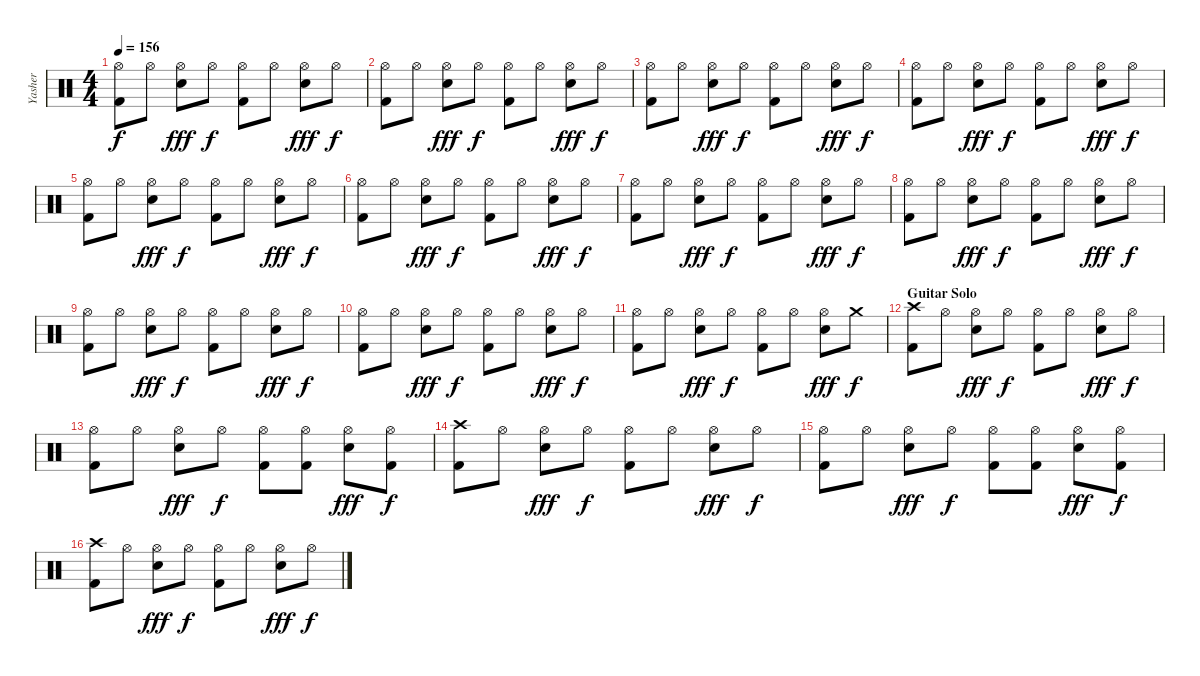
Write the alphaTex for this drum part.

\track ("Yasher" "Yasher") {instrument percussion}
\staff {score}
\articulation defaults
\ts (4 4)
\tempo 156
\clef neutral
\ks c
("Hi-Hat (open)" "Kick (hit) 2").8{dy f} "Hi-Hat (open)".8 ("Hi-Hat (open)" "Electric Snare (hit)").8{dy fff} "Hi-Hat (open)".8{dy f} ("Hi-Hat (open)" "Kick (hit) 2").8 "Hi-Hat (open)".8 ("Hi-Hat (open)" "Electric Snare (hit)").8{dy fff} "Hi-Hat (open)".8{dy f} |
("Hi-Hat (open)" "Kick (hit) 2").8 "Hi-Hat (open)".8 ("Hi-Hat (open)" "Electric Snare (hit)").8{dy fff} "Hi-Hat (open)".8{dy f} ("Hi-Hat (open)" "Kick (hit) 2").8 "Hi-Hat (open)".8 ("Hi-Hat (open)" "Electric Snare (hit)").8{dy fff} "Hi-Hat (open)".8{dy f} |
("Hi-Hat (open)" "Kick (hit) 2").8 "Hi-Hat (open)".8 ("Hi-Hat (open)" "Electric Snare (hit)").8{dy fff} "Hi-Hat (open)".8{dy f} ("Hi-Hat (open)" "Kick (hit) 2").8 "Hi-Hat (open)".8 ("Hi-Hat (open)" "Electric Snare (hit)").8{dy fff} "Hi-Hat (open)".8{dy f} |
("Hi-Hat (open)" "Kick (hit) 2").8 "Hi-Hat (open)".8 ("Hi-Hat (open)" "Electric Snare (hit)").8{dy fff} "Hi-Hat (open)".8{dy f} ("Hi-Hat (open)" "Kick (hit) 2").8 "Hi-Hat (open)".8 ("Hi-Hat (open)" "Electric Snare (hit)").8{dy fff} "Hi-Hat (open)".8{dy f} |
("Hi-Hat (open)" "Kick (hit) 2").8 "Hi-Hat (open)".8 ("Hi-Hat (open)" "Electric Snare (hit)").8{dy fff} "Hi-Hat (open)".8{dy f} ("Hi-Hat (open)" "Kick (hit) 2").8 "Hi-Hat (open)".8 ("Hi-Hat (open)" "Electric Snare (hit)").8{dy fff} "Hi-Hat (open)".8{dy f} |
("Hi-Hat (open)" "Kick (hit) 2").8 "Hi-Hat (open)".8 ("Hi-Hat (open)" "Electric Snare (hit)").8{dy fff} "Hi-Hat (open)".8{dy f} ("Hi-Hat (open)" "Kick (hit) 2").8 "Hi-Hat (open)".8 ("Hi-Hat (open)" "Electric Snare (hit)").8{dy fff} "Hi-Hat (open)".8{dy f} |
("Hi-Hat (open)" "Kick (hit) 2").8 "Hi-Hat (open)".8 ("Hi-Hat (open)" "Electric Snare (hit)").8{dy fff} "Hi-Hat (open)".8{dy f} ("Hi-Hat (open)" "Kick (hit) 2").8 "Hi-Hat (open)".8 ("Hi-Hat (open)" "Electric Snare (hit)").8{dy fff} "Hi-Hat (open)".8{dy f} |
("Hi-Hat (open)" "Kick (hit) 2").8 "Hi-Hat (open)".8 ("Hi-Hat (open)" "Electric Snare (hit)").8{dy fff} "Hi-Hat (open)".8{dy f} ("Hi-Hat (open)" "Kick (hit) 2").8 "Hi-Hat (open)".8 ("Hi-Hat (open)" "Electric Snare (hit)").8{dy fff} "Hi-Hat (open)".8{dy f} |
("Hi-Hat (open)" "Kick (hit) 2").8 "Hi-Hat (open)".8 ("Hi-Hat (open)" "Electric Snare (hit)").8{dy fff} "Hi-Hat (open)".8{dy f} ("Hi-Hat (open)" "Kick (hit) 2").8 "Hi-Hat (open)".8 ("Hi-Hat (open)" "Electric Snare (hit)").8{dy fff} "Hi-Hat (open)".8{dy f} |
("Hi-Hat (open)" "Kick (hit) 2").8 "Hi-Hat (open)".8 ("Hi-Hat (open)" "Electric Snare (hit)").8{dy fff} "Hi-Hat (open)".8{dy f} ("Hi-Hat (open)" "Kick (hit) 2").8 "Hi-Hat (open)".8 ("Hi-Hat (open)" "Electric Snare (hit)").8{dy fff} "Hi-Hat (open)".8{dy f} |
("Hi-Hat (open)" "Kick (hit) 2").8 "Hi-Hat (open)".8 ("Hi-Hat (open)" "Electric Snare (hit)").8{dy fff} "Hi-Hat (open)".8{dy f} ("Hi-Hat (open)" "Kick (hit) 2").8 "Hi-Hat (open)".8 ("Hi-Hat (open)" "Electric Snare (hit)").8{dy fff} "Crash medium (hit)".8{dy f} |
\section ("" "Guitar Solo")
("Crash high (hit)" "Kick (hit) 2").8 "Hi-Hat (open)".8 ("Hi-Hat (open)" "Electric Snare (hit)").8{dy fff} "Hi-Hat (open)".8{dy f} ("Hi-Hat (open)" "Kick (hit) 2").8 "Hi-Hat (open)".8 ("Hi-Hat (open)" "Electric Snare (hit)").8{dy fff} "Hi-Hat (open)".8{dy f} |
("Hi-Hat (open)" "Kick (hit) 2").8 "Hi-Hat (open)".8 ("Hi-Hat (open)" "Electric Snare (hit)").8{dy fff} "Hi-Hat (open)".8{dy f} ("Hi-Hat (open)" "Kick (hit) 2").8 ("Hi-Hat (open)" "Kick (hit) 2").8 ("Hi-Hat (open)" "Electric Snare (hit)").8{dy fff} ("Hi-Hat (open)" "Kick (hit) 2").8{dy f} |
("Crash high (hit)" "Kick (hit) 2").8 "Hi-Hat (open)".8 ("Hi-Hat (open)" "Electric Snare (hit)").8{dy fff} "Hi-Hat (open)".8{dy f} ("Hi-Hat (open)" "Kick (hit) 2").8 "Hi-Hat (open)".8 ("Hi-Hat (open)" "Electric Snare (hit)").8{dy fff} "Hi-Hat (open)".8{dy f} |
("Hi-Hat (open)" "Kick (hit) 2").8 "Hi-Hat (open)".8 ("Hi-Hat (open)" "Electric Snare (hit)").8{dy fff} "Hi-Hat (open)".8{dy f} ("Hi-Hat (open)" "Kick (hit) 2").8 ("Hi-Hat (open)" "Kick (hit) 2").8 ("Hi-Hat (open)" "Electric Snare (hit)").8{dy fff} ("Hi-Hat (open)" "Kick (hit) 2").8{dy f} |
("Crash high (hit)" "Kick (hit) 2").8 "Hi-Hat (open)".8 ("Hi-Hat (open)" "Electric Snare (hit)").8{dy fff} "Hi-Hat (open)".8{dy f} ("Hi-Hat (open)" "Kick (hit) 2").8 "Hi-Hat (open)".8 ("Hi-Hat (open)" "Electric Snare (hit)").8{dy fff} "Hi-Hat (open)".8{dy f}
